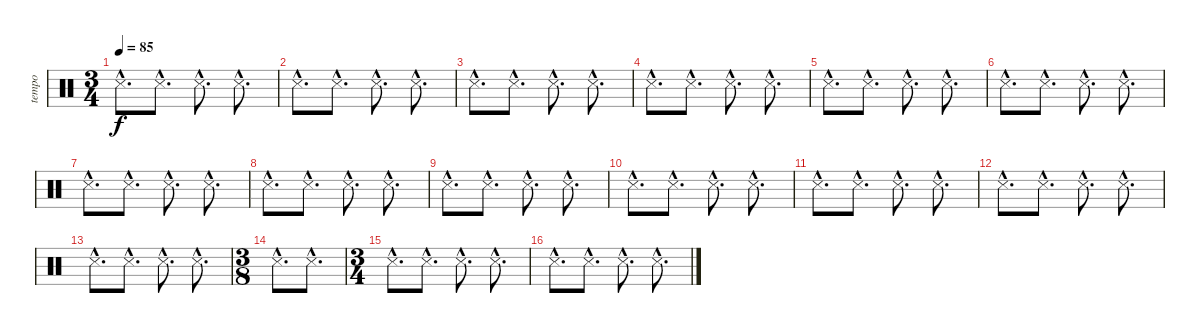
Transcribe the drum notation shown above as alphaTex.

\track ("tempo" "tempo") {instrument percussion}
\staff {score}
\articulation defaults
\ts (3 4)
\tempo 85
\clef neutral
\ks c "Metronome (hit)"{hac}.8{d dy f} "Metronome (hit)"{hac}.8{d} "Metronome (hit)"{hac}.8{d} "Metronome (hit)"{hac}.8{d}
|
"Metronome (hit)"{hac}.8{d} "Metronome (hit)"{hac}.8{d} "Metronome (hit)"{hac}.8{d} "Metronome (hit)"{hac}.8{d} |
"Metronome (hit)"{hac}.8{d} "Metronome (hit)"{hac}.8{d} "Metronome (hit)"{hac}.8{d} "Metronome (hit)"{hac}.8{d} |
"Metronome (hit)"{hac}.8{d} "Metronome (hit)"{hac}.8{d} "Metronome (hit)"{hac}.8{d} "Metronome (hit)"{hac}.8{d} |
"Metronome (hit)"{hac}.8{d} "Metronome (hit)"{hac}.8{d} "Metronome (hit)"{hac}.8{d} "Metronome (hit)"{hac}.8{d} |
"Metronome (hit)"{hac}.8{d} "Metronome (hit)"{hac}.8{d} "Metronome (hit)"{hac}.8{d} "Metronome (hit)"{hac}.8{d} |
"Metronome (hit)"{hac}.8{d} "Metronome (hit)"{hac}.8{d} "Metronome (hit)"{hac}.8{d} "Metronome (hit)"{hac}.8{d} |
"Metronome (hit)"{hac}.8{d} "Metronome (hit)"{hac}.8{d} "Metronome (hit)"{hac}.8{d} "Metronome (hit)"{hac}.8{d} |
"Metronome (hit)"{hac}.8{d} "Metronome (hit)"{hac}.8{d} "Metronome (hit)"{hac}.8{d} "Metronome (hit)"{hac}.8{d} |
"Metronome (hit)"{hac}.8{d} "Metronome (hit)"{hac}.8{d} "Metronome (hit)"{hac}.8{d} "Metronome (hit)"{hac}.8{d} |
"Metronome (hit)"{hac}.8{d} "Metronome (hit)"{hac}.8{d} "Metronome (hit)"{hac}.8{d} "Metronome (hit)"{hac}.8{d} |
"Metronome (hit)"{hac}.8{d} "Metronome (hit)"{hac}.8{d} "Metronome (hit)"{hac}.8{d} "Metronome (hit)"{hac}.8{d} |
"Metronome (hit)"{hac}.8{d} "Metronome (hit)"{hac}.8{d} "Metronome (hit)"{hac}.8{d} "Metronome (hit)"{hac}.8{d} |
\ts (3 8)
"Metronome (hit)"{hac}.8{d} "Metronome (hit)"{hac}.8{d} |
\ts (3 4)
"Metronome (hit)"{hac}.8{d} "Metronome (hit)"{hac}.8{d} "Metronome (hit)"{hac}.8{d} "Metronome (hit)"{hac}.8{d} |
"Metronome (hit)"{hac}.8{d} "Metronome (hit)"{hac}.8{d} "Metronome (hit)"{hac}.8{d} "Metronome (hit)"{hac}.8{d}
